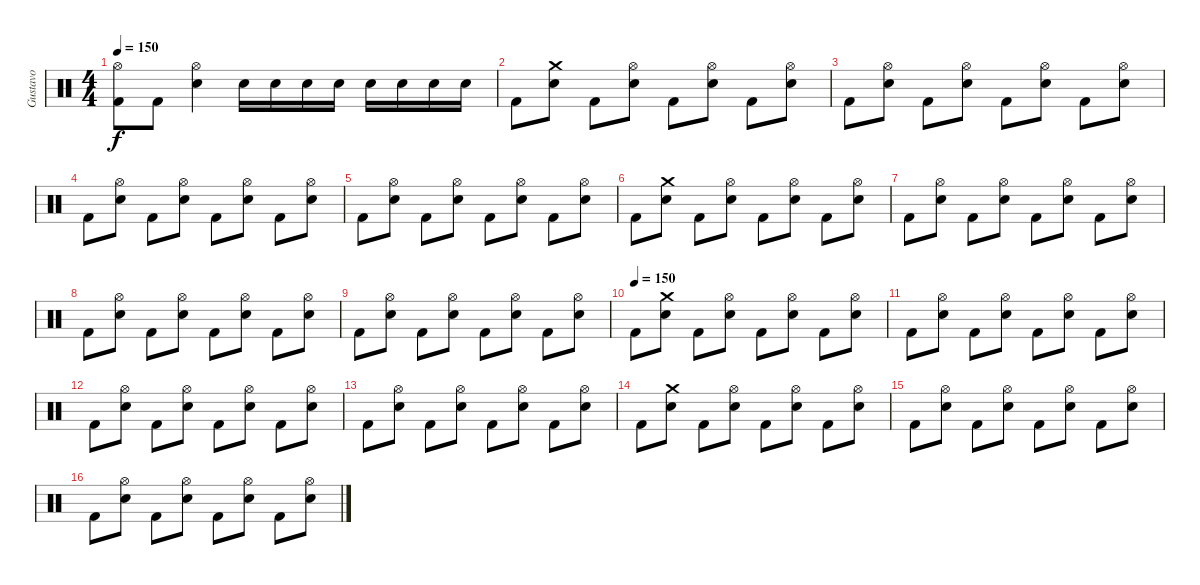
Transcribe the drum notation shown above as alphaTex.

\track ("Gustavo" "Gustavo") {instrument percussion}
\staff {score}
\articulation defaults
\ts (4 4)
\tempo 150
\clef neutral
\ks c
("Hi-Hat (open)" "Kick (hit) 2").8{dy f} "Kick (hit) 2".8 ("Hi-Hat (open)" "Snare (hit) 2").4 "Snare (hit) 2".16 "Snare (hit) 2".16 "Snare (hit) 2".16 "Snare (hit) 2".16 "Snare (hit) 2".16 "Snare (hit) 2".16 "Snare (hit) 2".16 "Snare (hit) 2".16 |
"Kick (hit) 2".8 ("Crash medium (hit)" "Snare (hit) 2").8 "Kick (hit) 2".8 ("Hi-Hat (open)" "Snare (hit) 2").8 "Kick (hit) 2".8 ("Hi-Hat (open)" "Snare (hit) 2").8 "Kick (hit) 2".8 ("Hi-Hat (open)" "Snare (hit) 2").8 |
"Kick (hit) 2".8 ("Hi-Hat (open)" "Snare (hit) 2").8 "Kick (hit) 2".8 ("Hi-Hat (open)" "Snare (hit) 2").8 "Kick (hit) 2".8 ("Hi-Hat (open)" "Snare (hit) 2").8 "Kick (hit) 2".8 ("Hi-Hat (open)" "Snare (hit) 2").8 |
"Kick (hit) 2".8 ("Hi-Hat (open)" "Snare (hit) 2").8 "Kick (hit) 2".8 ("Hi-Hat (open)" "Snare (hit) 2").8 "Kick (hit) 2".8 ("Hi-Hat (open)" "Snare (hit) 2").8 "Kick (hit) 2".8 ("Hi-Hat (open)" "Snare (hit) 2").8 |
"Kick (hit) 2".8 ("Hi-Hat (open)" "Snare (hit) 2").8 "Kick (hit) 2".8 ("Hi-Hat (open)" "Snare (hit) 2").8 "Kick (hit) 2".8 ("Hi-Hat (open)" "Snare (hit) 2").8 "Kick (hit) 2".8 ("Hi-Hat (open)" "Snare (hit) 2").8 |
"Kick (hit) 2".8 ("Crash medium (hit)" "Snare (hit) 2").8 "Kick (hit) 2".8 ("Hi-Hat (open)" "Snare (hit) 2").8 "Kick (hit) 2".8 ("Hi-Hat (open)" "Snare (hit) 2").8 "Kick (hit) 2".8 ("Hi-Hat (open)" "Snare (hit) 2").8 |
"Kick (hit) 2".8 ("Hi-Hat (open)" "Snare (hit) 2").8 "Kick (hit) 2".8 ("Hi-Hat (open)" "Snare (hit) 2").8 "Kick (hit) 2".8 ("Hi-Hat (open)" "Snare (hit) 2").8 "Kick (hit) 2".8 ("Hi-Hat (open)" "Snare (hit) 2").8 |
"Kick (hit) 2".8 ("Hi-Hat (open)" "Snare (hit) 2").8 "Kick (hit) 2".8 ("Hi-Hat (open)" "Snare (hit) 2").8 "Kick (hit) 2".8 ("Hi-Hat (open)" "Snare (hit) 2").8 "Kick (hit) 2".8 ("Hi-Hat (open)" "Snare (hit) 2").8 |
"Kick (hit) 2".8 ("Hi-Hat (open)" "Snare (hit) 2").8 "Kick (hit) 2".8 ("Hi-Hat (open)" "Snare (hit) 2").8 "Kick (hit) 2".8 ("Hi-Hat (open)" "Snare (hit) 2").8 "Kick (hit) 2".8 ("Hi-Hat (open)" "Snare (hit) 2").8 |
\tempo (150)
"Kick (hit) 2".8 ("Crash medium (hit)" "Snare (hit) 2").8 "Kick (hit) 2".8 ("Hi-Hat (open)" "Snare (hit) 2").8 "Kick (hit) 2".8 ("Hi-Hat (open)" "Snare (hit) 2").8 "Kick (hit) 2".8 ("Hi-Hat (open)" "Snare (hit) 2").8 |
"Kick (hit) 2".8 ("Hi-Hat (open)" "Snare (hit) 2").8 "Kick (hit) 2".8 ("Hi-Hat (open)" "Snare (hit) 2").8 "Kick (hit) 2".8 ("Hi-Hat (open)" "Snare (hit) 2").8 "Kick (hit) 2".8 ("Hi-Hat (open)" "Snare (hit) 2").8 |
"Kick (hit) 2".8 ("Hi-Hat (open)" "Snare (hit) 2").8 "Kick (hit) 2".8 ("Hi-Hat (open)" "Snare (hit) 2").8 "Kick (hit) 2".8 ("Hi-Hat (open)" "Snare (hit) 2").8 "Kick (hit) 2".8 ("Hi-Hat (open)" "Snare (hit) 2").8 |
"Kick (hit) 2".8 ("Hi-Hat (open)" "Snare (hit) 2").8 "Kick (hit) 2".8 ("Hi-Hat (open)" "Snare (hit) 2").8 "Kick (hit) 2".8 ("Hi-Hat (open)" "Snare (hit) 2").8 "Kick (hit) 2".8 ("Hi-Hat (open)" "Snare (hit) 2").8 |
"Kick (hit) 2".8 ("Crash medium (hit)" "Snare (hit) 2").8 "Kick (hit) 2".8 ("Hi-Hat (open)" "Snare (hit) 2").8 "Kick (hit) 2".8 ("Hi-Hat (open)" "Snare (hit) 2").8 "Kick (hit) 2".8 ("Hi-Hat (open)" "Snare (hit) 2").8 |
"Kick (hit) 2".8 ("Hi-Hat (open)" "Snare (hit) 2").8 "Kick (hit) 2".8 ("Hi-Hat (open)" "Snare (hit) 2").8 "Kick (hit) 2".8 ("Hi-Hat (open)" "Snare (hit) 2").8 "Kick (hit) 2".8 ("Hi-Hat (open)" "Snare (hit) 2").8 |
"Kick (hit) 2".8 ("Hi-Hat (open)" "Snare (hit) 2").8 "Kick (hit) 2".8 ("Hi-Hat (open)" "Snare (hit) 2").8 "Kick (hit) 2".8 ("Hi-Hat (open)" "Snare (hit) 2").8 "Kick (hit) 2".8 ("Hi-Hat (open)" "Snare (hit) 2").8
